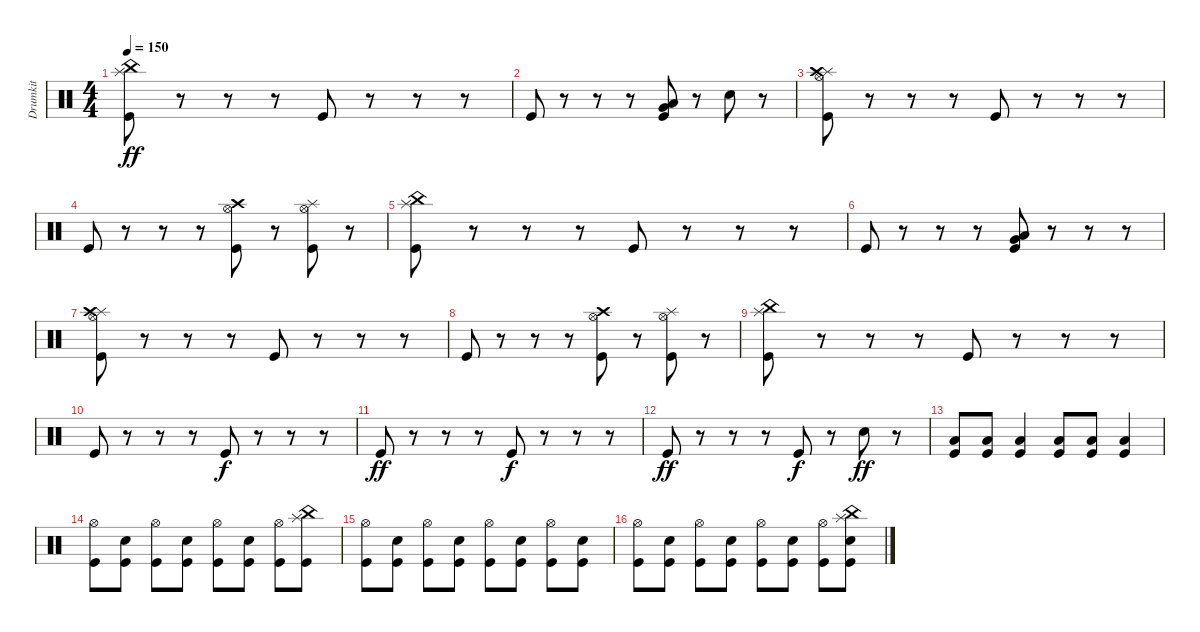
\track ("Drumkit" "Drumkit") {instrument percussion}
\staff {score}
\articulation defaults
\ts (4 4)
\tempo 150
\clef neutral
\ks c
("Splash (hit)" "China (hit)" "Kick (hit)").8{dy ff} r.8 r.8 r.8 "Kick (hit)".8 r.8 r.8 r.8 |
"Kick (hit)".8 r.8 r.8 r.8 ("Low Floor Tom (hit)" "Very Low Tom (hit)" "Kick (hit)").8 r.8 "Snare (hit) 2".8 r.8 |
("Splash (hit)" "Hi-Hat (open)" "Crash high (hit)" "Kick (hit)").8 r.8 r.8 r.8 "Kick (hit)".8 r.8 r.8 r.8 |
"Kick (hit)".8 r.8 r.8 r.8 ("Kick (hit)" "Hi-Hat (open)" "Crash high (hit)").8 r.8 ("Kick (hit)" "Hi-Hat (open)" "Splash (hit)").8 r.8 |
("Splash (hit)" "China (hit)" "Kick (hit)").8 r.8 r.8 r.8 "Kick (hit)".8 r.8 r.8 r.8 |
"Kick (hit)".8 r.8 r.8 r.8 ("Low Floor Tom (hit)" "Very Low Tom (hit)" "Kick (hit)").8 r.8 r.8 r.8 |
("Splash (hit)" "Hi-Hat (open)" "Crash high (hit)" "Kick (hit)").8 r.8 r.8 r.8 "Kick (hit)".8 r.8 r.8 r.8 |
"Kick (hit)".8 r.8 r.8 r.8 ("Kick (hit)" "Hi-Hat (open)" "Crash high (hit)").8 r.8 ("Kick (hit)" "Hi-Hat (open)" "Splash (hit)").8 r.8 |
("Splash (hit)" "China (hit)" "Kick (hit)").8 r.8 r.8 r.8 "Kick (hit)".8 r.8 r.8 r.8 |
"Kick (hit)".8 r.8 r.8 r.8 "Kick (hit)".8{dy f} r.8 r.8 r.8 |
"Kick (hit)".8{dy ff} r.8 r.8 r.8 "Kick (hit)".8{dy f} r.8 r.8 r.8 |
"Kick (hit)".8{dy ff} r.8 r.8 r.8 "Kick (hit)".8{dy f} r.8 "Snare (hit) 2".8{dy ff} r.8 |
("Low Floor Tom (hit)" "Kick (hit)").8 ("Low Floor Tom (hit)" "Kick (hit)").8 ("Kick (hit)" "Low Floor Tom (hit)").4 ("Low Floor Tom (hit)" "Kick (hit)").8 ("Kick (hit)" "Low Floor Tom (hit)").8 ("Low Floor Tom (hit)" "Kick (hit)").4 |
("Hi-Hat (open)" "Kick (hit)").8 ("Snare (hit) 2" "Kick (hit)").8 ("Hi-Hat (open)" "Kick (hit)").8 ("Snare (hit) 2" "Kick (hit)").8 ("Hi-Hat (open)" "Kick (hit)").8 ("Snare (hit) 2" "Kick (hit)").8 ("Hi-Hat (open)" "Kick (hit)").8 ("Kick (hit)" "China (hit)" "Splash (hit)").8 |
("Hi-Hat (open)" "Kick (hit)").8 ("Snare (hit) 2" "Kick (hit)").8 ("Hi-Hat (open)" "Kick (hit)").8 ("Snare (hit) 2" "Kick (hit)").8 ("Hi-Hat (open)" "Kick (hit)").8 ("Snare (hit) 2" "Kick (hit)").8 ("Hi-Hat (open)" "Kick (hit)").8 ("Snare (hit) 2" "Kick (hit)").8 |
("Hi-Hat (open)" "Kick (hit)").8 ("Snare (hit) 2" "Kick (hit)").8 ("Hi-Hat (open)" "Kick (hit)").8 ("Snare (hit) 2" "Kick (hit)").8 ("Hi-Hat (open)" "Kick (hit)").8 ("Snare (hit) 2" "Kick (hit)").8 ("Hi-Hat (open)" "Kick (hit)").8 ("Snare (hit) 2" "Kick (hit)" "China (hit)" "Splash (hit)").8
